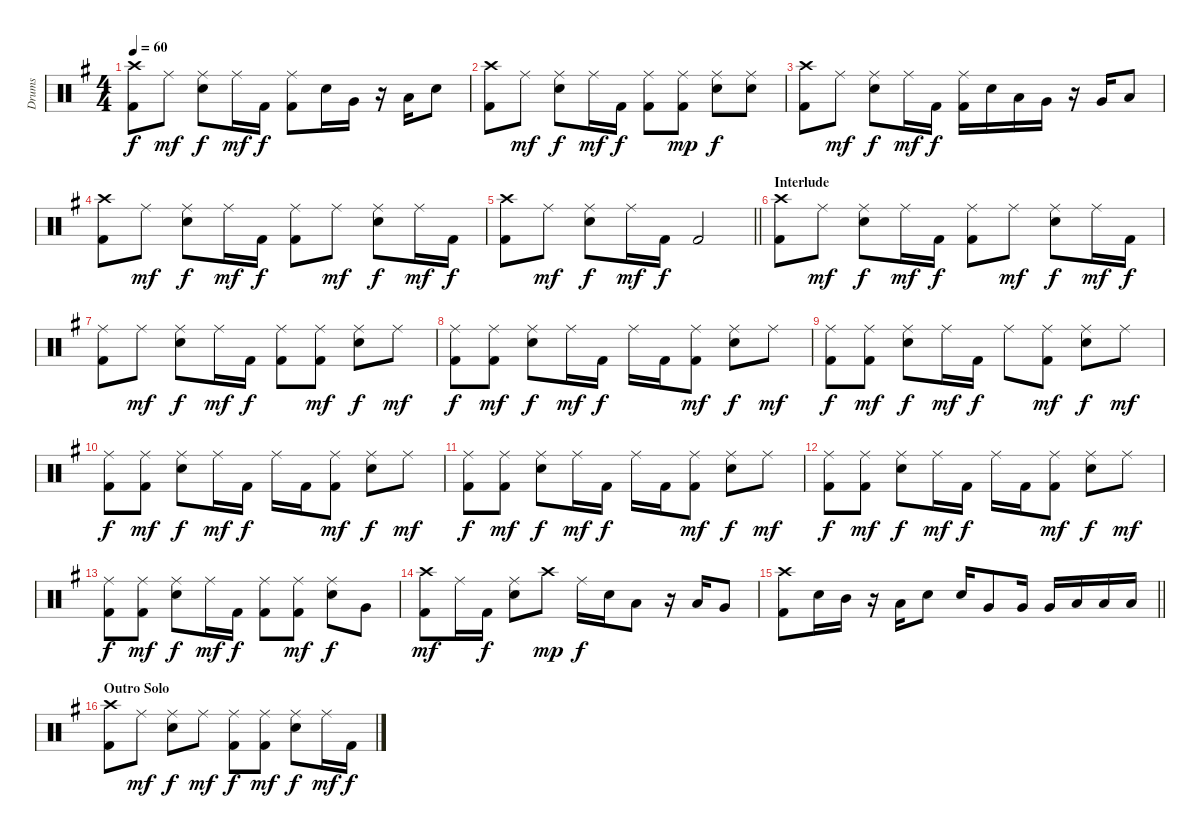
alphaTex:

\track ("Drums" "Drums") {instrument percussion}
\staff {score}
\articulation defaults
\ts (4 4)
\tempo 60
\clef neutral
\ks g
("Crash high (hit)" "Kick (hit) 2").8{dy f} "Ride (middle)".8{dy mf} ("Ride (middle)" "Electric Snare (hit)").8{dy f} "Ride (middle)".16{dy mf} "Kick (hit) 2".16{dy f} ("Ride (middle)" "Kick (hit) 2").8 "Electric Snare (hit)".16 "Very Low Tom (hit)".16 r.16 "Low Tom (hit)".16 "Electric Snare (hit)".8 |
("Crash high (hit)" "Kick (hit) 2").8 "Ride (middle)".8{dy mf} ("Ride (middle)" "Electric Snare (hit)").8{dy f} "Ride (middle)".16{dy mf} "Kick (hit) 2".16{dy f} ("Ride (middle)" "Kick (hit) 2").8 ("Ride (middle)" "Kick (hit) 2").8{dy mp} ("Ride (middle)" "Electric Snare (hit)").8{dy f} ("Ride (middle)" "Electric Snare (hit)").8 |
("Crash high (hit)" "Kick (hit) 2").8 "Ride (middle)".8{dy mf} ("Ride (middle)" "Electric Snare (hit)").8{dy f} "Ride (middle)".16{dy mf} "Kick (hit) 2".16{dy f} ("Ride (middle)" "Kick (hit) 2").16 "Electric Snare (hit)".16 "Low Tom (hit)".16 "Very Low Tom (hit)".16 r.16 "Very Low Tom (hit)".16 "Low Floor Tom (hit)".8 |
("Crash high (hit)" "Kick (hit) 2").8 "Ride (middle)".8{dy mf} ("Ride (middle)" "Electric Snare (hit)").8{dy f} "Ride (middle)".16{dy mf} "Kick (hit) 2".16{dy f} ("Ride (middle)" "Kick (hit) 2").8 "Ride (middle)".8{dy mf} ("Ride (middle)" "Electric Snare (hit)").8{dy f} "Ride (middle)".16{dy mf} "Kick (hit) 2".16{dy f} |
\barLineRight lightlight
("Crash high (hit)" "Kick (hit) 2").8 "Ride (middle)".8{dy mf} ("Ride (middle)" "Electric Snare (hit)").8{dy f} "Ride (middle)".16{dy mf} "Kick (hit) 2".16{dy f} "Kick (hit) 2".2 |
\section ("" "Interlude")
("Crash high (hit)" "Kick (hit) 2").8 "Ride (middle)".8{dy mf} ("Ride (middle)" "Electric Snare (hit)").8{dy f} "Ride (middle)".16{dy mf} "Kick (hit) 2".16{dy f} ("Ride (middle)" "Kick (hit) 2").8 "Ride (middle)".8{dy mf} ("Ride (middle)" "Electric Snare (hit)").8{dy f} "Ride (middle)".16{dy mf} "Kick (hit) 2".16{dy f} |
("Ride (middle)" "Kick (hit) 2").8 "Ride (middle)".8{dy mf} ("Ride (middle)" "Electric Snare (hit)").8{dy f} "Ride (middle)".16{dy mf} "Kick (hit) 2".16{dy f} ("Ride (middle)" "Kick (hit) 2").8 ("Ride (middle)" "Kick (hit) 2").8{dy mf} ("Ride (middle)" "Electric Snare (hit)").8{dy f} "Ride (middle)".8{dy mf} |
("Ride (middle)" "Kick (hit) 2").8{dy f} ("Ride (middle)" "Kick (hit) 2").8{dy mf} ("Ride (middle)" "Electric Snare (hit)").8{dy f} "Ride (middle)".16{dy mf} "Kick (hit) 2".16{dy f} "Ride (middle)".16 "Kick (hit) 2".16 ("Ride (middle)" "Kick (hit) 2").8{dy mf} ("Ride (middle)" "Electric Snare (hit)").8{dy f} "Ride (middle)".8{dy mf} |
("Ride (middle)" "Kick (hit) 2").8{dy f} ("Ride (middle)" "Kick (hit) 2").8{dy mf} ("Ride (middle)" "Electric Snare (hit)").8{dy f} "Ride (middle)".16{dy mf} "Kick (hit) 2".16{dy f} "Ride (middle)".8 ("Ride (middle)" "Kick (hit) 2").8{dy mf} ("Ride (middle)" "Electric Snare (hit)").8{dy f} "Ride (middle)".8{dy mf} |
("Ride (middle)" "Kick (hit) 2").8{dy f} ("Ride (middle)" "Kick (hit) 2").8{dy mf} ("Ride (middle)" "Electric Snare (hit)").8{dy f} "Ride (middle)".16{dy mf} "Kick (hit) 2".16{dy f} "Ride (middle)".16 "Kick (hit) 2".16 ("Ride (middle)" "Kick (hit) 2").8{dy mf} ("Ride (middle)" "Electric Snare (hit)").8{dy f} "Ride (middle)".8{dy mf} |
("Ride (middle)" "Kick (hit) 2").8{dy f} ("Ride (middle)" "Kick (hit) 2").8{dy mf} ("Ride (middle)" "Electric Snare (hit)").8{dy f} "Ride (middle)".16{dy mf} "Kick (hit) 2".16{dy f} "Ride (middle)".16 "Kick (hit) 2".16 ("Ride (middle)" "Kick (hit) 2").8{dy mf} ("Ride (middle)" "Electric Snare (hit)").8{dy f} "Ride (middle)".8{dy mf} |
("Ride (middle)" "Kick (hit) 2").8{dy f} ("Ride (middle)" "Kick (hit) 2").8{dy mf} ("Ride (middle)" "Electric Snare (hit)").8{dy f} "Ride (middle)".16{dy mf} "Kick (hit) 2".16{dy f} "Ride (middle)".16 "Kick (hit) 2".16 ("Ride (middle)" "Kick (hit) 2").8{dy mf} ("Ride (middle)" "Electric Snare (hit)").8{dy f} "Ride (middle)".8{dy mf} |
("Ride (middle)" "Kick (hit) 2").8{dy f} ("Ride (middle)" "Kick (hit) 2").8{dy mf} ("Ride (middle)" "Electric Snare (hit)").8{dy f} "Ride (middle)".16{dy mf} "Kick (hit) 2".16{dy f} ("Ride (middle)" "Kick (hit) 2").8 ("Ride (middle)" "Kick (hit) 2").8{dy mf} ("Ride (middle)" "Electric Snare (hit)").8{dy f} "Very Low Tom (hit)".8 |
("Crash high (hit)" "Kick (hit) 2").8{dy mf} "Ride (middle)".16 "Kick (hit) 2".16{dy f} ("Ride (middle)" "Electric Snare (hit)").8 "Crash high (hit)".8{dy mp} "Ride (middle)".16{dy f} "Electric Snare (hit)".16 "Low Tom (hit)".8 r.16 "Low Tom (hit)".16 "Very Low Tom (hit)".8 |
\barLineRight lightlight
("Crash high (hit)" "Kick (hit) 2").8 "Electric Snare (hit)".16 "Mid Tom (hit)".16 r.16 "Low Tom (hit)".16 "Electric Snare (hit)".8 "Electric Snare (hit)".16 "Very Low Tom (hit)".8 "Very Low Tom (hit)".16 "Very Low Tom (hit)".16 "Low Floor Tom (hit)".16 "Low Floor Tom (hit)".16 "Low Floor Tom (hit)".16 |
\section ("" "Outro Solo")
("Crash high (hit)" "Kick (hit) 2").8 "Ride (middle)".8{dy mf} ("Ride (middle)" "Electric Snare (hit)").8{dy f} "Ride (middle)".8{dy mf} ("Ride (middle)" "Kick (hit) 2").8{dy f} ("Ride (middle)" "Kick (hit) 2").8{dy mf} ("Ride (middle)" "Electric Snare (hit)").8{dy f} "Ride (middle)".16{dy mf} "Kick (hit) 2".16{dy f}
